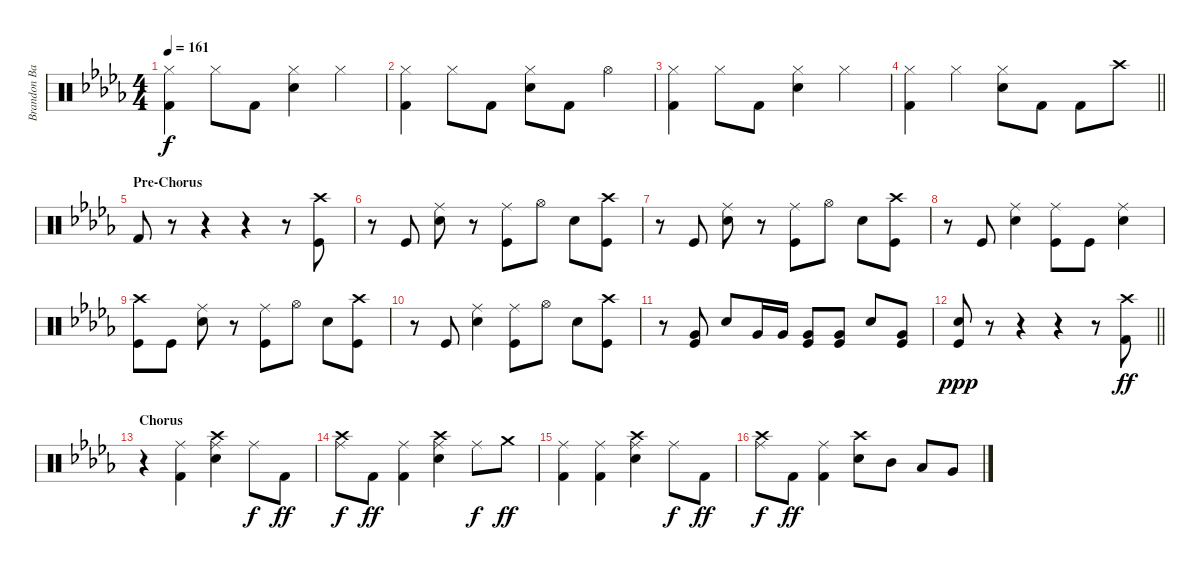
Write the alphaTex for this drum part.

\track ("Brandon Barnes - Drums" "Brandon Ba") {instrument percussion}
\staff {score}
\articulation defaults
\ts (4 4)
\tempo 161
\clef neutral
\ks db
("Hi-Hat (closed)" "Kick (hit) 2").4{dy f} "Hi-Hat (closed)".8 "Kick (hit) 2".8 ("Snare (hit) 2" "Hi-Hat (closed)").4 "Hi-Hat (closed)".4 |
("Hi-Hat (closed)" "Kick (hit) 2").4 "Hi-Hat (closed)".8 "Kick (hit) 2".8 ("Snare (hit) 2" "Hi-Hat (closed)").8 "Kick (hit) 2".8 "Hi-Hat (open)".4 |
("Hi-Hat (closed)" "Kick (hit) 2").4 "Hi-Hat (closed)".8 "Kick (hit) 2".8 ("Snare (hit) 2" "Hi-Hat (closed)").4 "Hi-Hat (closed)".4 |
\barLineRight lightlight
("Hi-Hat (closed)" "Kick (hit) 2").4 "Hi-Hat (closed)".4 ("Snare (hit) 2" "Hi-Hat (closed)").8 "Kick (hit) 2".8 "Kick (hit) 2".8 "Crash high (hit)".8 |
\section ("" "Pre-Chorus")
"Kick (hit) 2".8 r.8{volume 0} r.4 r.4 r.8{volume 7} ("Crash high (hit)" "Kick (hit)").8 |
r.8 "Kick (hit)".8 ("Ride (middle)" "Snare (hit) 2").8 r.8 ("Ride (middle)" "Kick (hit)").8 "Hi-Hat (open)".8 "Snare (hit) 2".8 ("Crash high (hit)" "Kick (hit)").8 |
r.8 "Kick (hit)".8 ("Ride (middle)" "Snare (hit) 2").8 r.8 ("Ride (middle)" "Kick (hit)").8 "Hi-Hat (open)".8 "Snare (hit) 2".8 ("Crash high (hit)" "Kick (hit)").8 |
r.8 "Kick (hit)".8 ("Ride (middle)" "Snare (hit) 2").4 ("Ride (middle)" "Kick (hit)").8 "Kick (hit)".8 ("Ride (middle)" "Snare (hit) 2").4 |
("Crash high (hit)" "Kick (hit)").8 "Kick (hit)".8 ("Ride (middle)" "Snare (hit) 2").8 r.8 ("Ride (middle)" "Kick (hit)").8 "Hi-Hat (open)".8 "Snare (hit) 2".8 ("Crash high (hit)" "Kick (hit)").8 |
r.8 "Kick (hit)".8 ("Ride (middle)" "Snare (hit) 2").4 ("Ride (middle)" "Kick (hit)").8 "Hi-Hat (open)".8 "Snare (hit) 2".8 ("Crash high (hit)" "Kick (hit)").8 |
r.8 ("Very Low Tom (hit)" "Kick (hit)").8 "Snare (hit) 2".8 "Very Low Tom (hit)".16 "Very Low Tom (hit)".16 ("Very Low Tom (hit)" "Kick (hit)").8 ("Very Low Tom (hit)" "Kick (hit)").8 "Snare (hit) 2".8 ("Very Low Tom (hit)" "Kick (hit)").8 |
\barLineRight lightlight
("Kick (hit)" "Snare (hit) 2").8{dy ppp} r.8 r.4 r.4 r.8 ("Kick (hit) 2" "Crash high (hit)").8{dy ff} |
\section ("" "Chorus")
r.4 ("Kick (hit) 2" "Ride (middle)").4 ("Snare (hit) 2" "Crash high (hit)" "Ride (middle)").4 "Ride (middle)".8{dy f} "Kick (hit) 2".8{dy ff} |
("Crash high (hit)" "Ride (middle)").8{dy f} "Kick (hit) 2".8{dy ff} ("Kick (hit) 2" "Ride (middle)").4 ("Snare (hit) 2" "Crash high (hit)" "Ride (middle)").4 "Ride (middle)".8{dy f} "Crash medium (hit)".8{dy ff} |
("Kick (hit) 2" "Ride (middle)").4 ("Kick (hit) 2" "Ride (middle)").4 ("Snare (hit) 2" "Crash high (hit)" "Ride (middle)").4 "Ride (middle)".8{dy f} "Kick (hit) 2".8{dy ff} |
("Crash high (hit)" "Ride (middle)").8{dy f} "Kick (hit) 2".8{dy ff} ("Kick (hit) 2" "Ride (middle)").4 ("Crash high (hit)" "Snare (hit) 2").8 "Mid Tom (hit)".8 "Low Tom (hit)".8 "Very Low Tom (hit)".8
